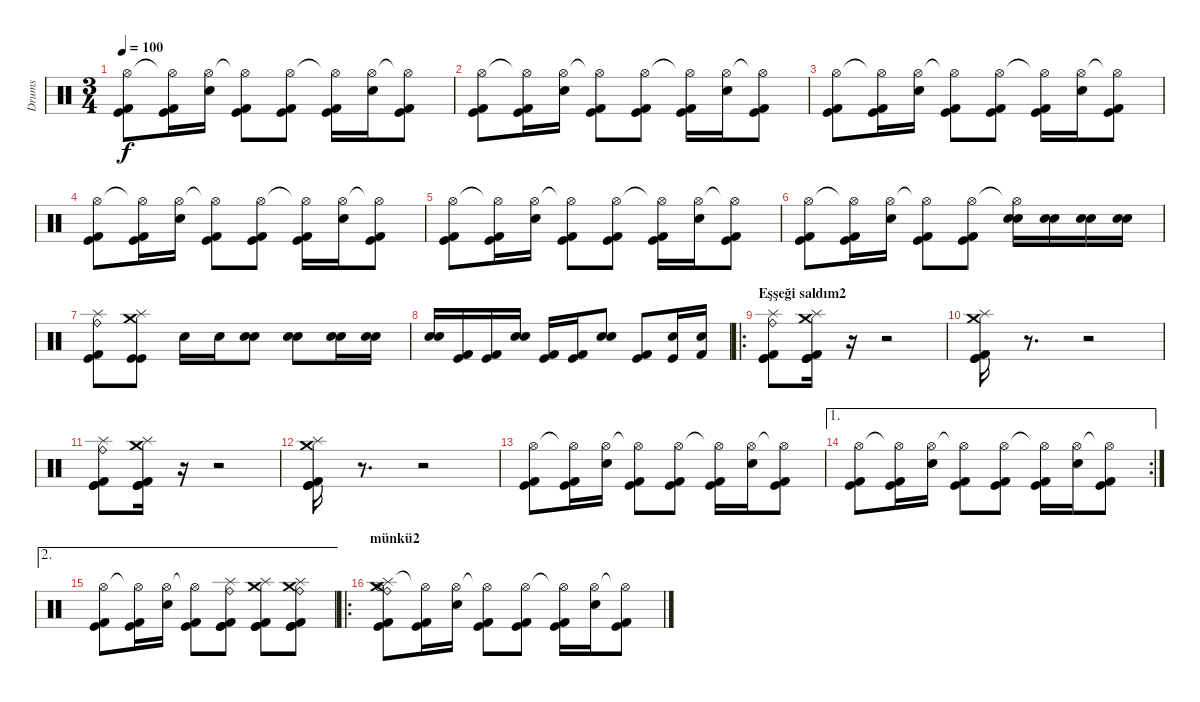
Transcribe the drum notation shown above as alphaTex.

\track ("Drums" "Drums") {instrument percussion}
\staff {score}
\articulation defaults
\ts (3 4)
\tempo 100
\clef neutral
\ks c
("Hi-Hat (open)" "Kick (hit)" "Kick (hit) 2").8{dy f} ("Hi-Hat (open)"{t} "Kick (hit)" "Kick (hit) 2").16 ("Hi-Hat (open)" "Snare (hit) 2").16 ("Hi-Hat (open)"{t} "Kick (hit)" "Kick (hit) 2").8 ("Hi-Hat (open)" "Kick (hit)" "Kick (hit) 2").8 ("Hi-Hat (open)"{t} "Kick (hit)" "Kick (hit) 2").16 ("Hi-Hat (open)" "Snare (hit) 2").16 ("Hi-Hat (open)"{t} "Kick (hit)" "Kick (hit) 2").8 |
("Hi-Hat (open)" "Kick (hit)" "Kick (hit) 2").8 ("Hi-Hat (open)"{t} "Kick (hit)" "Kick (hit) 2").16 ("Hi-Hat (open)" "Snare (hit) 2").16 ("Hi-Hat (open)"{t} "Kick (hit)" "Kick (hit) 2").8 ("Hi-Hat (open)" "Kick (hit)" "Kick (hit) 2").8 ("Hi-Hat (open)"{t} "Kick (hit)" "Kick (hit) 2").16 ("Hi-Hat (open)" "Snare (hit) 2").16 ("Hi-Hat (open)"{t} "Kick (hit)" "Kick (hit) 2").8 |
("Hi-Hat (open)" "Kick (hit)" "Kick (hit) 2").8 ("Hi-Hat (open)"{t} "Kick (hit)" "Kick (hit) 2").16 ("Hi-Hat (open)" "Snare (hit) 2").16 ("Hi-Hat (open)"{t} "Kick (hit)" "Kick (hit) 2").8 ("Hi-Hat (open)" "Kick (hit)" "Kick (hit) 2").8 ("Hi-Hat (open)"{t} "Kick (hit)" "Kick (hit) 2").16 ("Hi-Hat (open)" "Snare (hit) 2").16 ("Hi-Hat (open)"{t} "Kick (hit)" "Kick (hit) 2").8 |
("Hi-Hat (open)" "Kick (hit)" "Kick (hit) 2").8 ("Hi-Hat (open)"{t} "Kick (hit)" "Kick (hit) 2").16 ("Hi-Hat (open)" "Snare (hit) 2").16 ("Hi-Hat (open)"{t} "Kick (hit)" "Kick (hit) 2").8 ("Hi-Hat (open)" "Kick (hit)" "Kick (hit) 2").8 ("Hi-Hat (open)"{t} "Kick (hit)" "Kick (hit) 2").16 ("Hi-Hat (open)" "Snare (hit) 2").16 ("Hi-Hat (open)"{t} "Kick (hit)" "Kick (hit) 2").8 |
("Hi-Hat (open)" "Kick (hit)" "Kick (hit) 2").8 ("Hi-Hat (open)"{t} "Kick (hit)" "Kick (hit) 2").16 ("Hi-Hat (open)" "Snare (hit) 2").16 ("Hi-Hat (open)"{t} "Kick (hit)" "Kick (hit) 2").8 ("Hi-Hat (open)" "Kick (hit)" "Kick (hit) 2").8 ("Hi-Hat (open)"{t} "Kick (hit)" "Kick (hit) 2").16 ("Hi-Hat (open)" "Snare (hit) 2").16 ("Hi-Hat (open)"{t} "Kick (hit)" "Kick (hit) 2").8 |
("Hi-Hat (open)" "Kick (hit)" "Kick (hit) 2").8 ("Hi-Hat (open)"{t} "Kick (hit)" "Kick (hit) 2").16 ("Hi-Hat (open)" "Snare (hit) 2").16 ("Hi-Hat (open)"{t} "Kick (hit)" "Kick (hit) 2").8 ("Hi-Hat (open)" "Kick (hit)" "Kick (hit) 2").8 ("Hi-Hat (open)"{t} "Electric Snare (hit)" "Snare (hit) 2").16 ("Electric Snare (hit)" "Snare (hit) 2").16 ("Electric Snare (hit)" "Snare (hit) 2").16 ("Electric Snare (hit)" "Snare (hit) 2").16 |
("Splash (hit)" "Ride (bell)" "Kick (hit)" "Kick (hit) 2").8 ("Crash medium (hit)" "Splash (hit)" "Kick (hit)" "Kick (hit)").8 "Electric Snare (hit)".16 "Electric Snare (hit)".16 ("Snare (hit) 2" "Electric Snare (hit)").8 ("Snare (hit) 2" "Electric Snare (hit)").8 ("Electric Snare (hit)" "Snare (hit) 2").16 ("Electric Snare (hit)" "Snare (hit) 2").16 |
("Snare (hit) 2" "Electric Snare (hit)").16 ("Kick (hit)" "Kick (hit) 2").16 ("Kick (hit)" "Kick (hit) 2").16 ("Snare (hit) 2" "Electric Snare (hit)").16 ("Kick (hit) 2" "Kick (hit)").16 ("Kick (hit) 2" "Kick (hit)").16 ("Snare (hit) 2" "Electric Snare (hit)").8 ("Kick (hit) 2" "Kick (hit)").8 ("Snare (hit) 2" "Kick (hit)").16 ("Electric Snare (hit)" "Kick (hit) 2").16 |
\ro
\section ("" "Eşşeği saldım2")
("Splash (hit)" "Ride (bell)" "Kick (hit) 2" "Kick (hit)" "Kick (hit)").8 ("Crash medium (hit)" "Splash (hit)" "Kick (hit) 2" "Kick (hit)" "Kick (hit)" "Kick (hit)").16 r.16 r.2 |
("Splash (hit)" "Crash medium (hit)" "Kick (hit) 2" "Kick (hit)" "Kick (hit)").16 r.8{d} r.2 |
("Splash (hit)" "Ride (bell)" "Kick (hit) 2" "Kick (hit)" "Kick (hit)").8 ("Crash medium (hit)" "Splash (hit)" "Kick (hit) 2" "Kick (hit)" "Kick (hit)" "Kick (hit)").16 r.16 r.2 |
("Splash (hit)" "Crash medium (hit)" "Kick (hit) 2" "Kick (hit)" "Kick (hit)").16 r.8{d} r.2 |
("Hi-Hat (open)" "Kick (hit)" "Kick (hit) 2").8 ("Hi-Hat (open)"{t} "Kick (hit)" "Kick (hit) 2").16 ("Hi-Hat (open)" "Snare (hit) 2").16 ("Hi-Hat (open)"{t} "Kick (hit)" "Kick (hit) 2").8 ("Hi-Hat (open)" "Kick (hit)" "Kick (hit) 2").8 ("Hi-Hat (open)"{t} "Kick (hit)" "Kick (hit) 2").16 ("Hi-Hat (open)" "Snare (hit) 2").16 ("Hi-Hat (open)"{t} "Kick (hit)" "Kick (hit) 2").8 |
\ae 1
\rc 2
("Hi-Hat (open)" "Kick (hit)" "Kick (hit) 2").8 ("Hi-Hat (open)"{t} "Kick (hit)" "Kick (hit) 2").16 ("Hi-Hat (open)" "Snare (hit) 2").16 ("Hi-Hat (open)"{t} "Kick (hit)" "Kick (hit) 2").8 ("Hi-Hat (open)" "Kick (hit)" "Kick (hit) 2").8 ("Hi-Hat (open)"{t} "Kick (hit)" "Kick (hit) 2").16 ("Hi-Hat (open)" "Snare (hit) 2").16 ("Hi-Hat (open)"{t} "Kick (hit)" "Kick (hit) 2").8 |
\ae 2
("Hi-Hat (open)" "Kick (hit)" "Kick (hit) 2").8 ("Hi-Hat (open)"{t} "Kick (hit)" "Kick (hit) 2").16 ("Hi-Hat (open)" "Snare (hit) 2").16 ("Hi-Hat (open)"{t} "Kick (hit)" "Kick (hit) 2").8 ("Splash (hit)" "Ride (bell)" "Kick (hit)" "Kick (hit)" "Kick (hit) 2").8 ("Crash medium (hit)" "Splash (hit)" "Kick (hit)" "Kick (hit)" "Kick (hit) 2").8 ("Crash medium (hit)" "Ride (bell)" "Splash (hit)" "Kick (hit)" "Kick (hit)" "Kick (hit) 2").8 |
\ro
\section ("" "münkü2")
("Splash (hit)" "Crash medium (hit)" "Hi-Hat (open)" "Kick (hit)" "Kick (hit) 2" "Ride (bell)").8 ("Hi-Hat (open)"{t} "Kick (hit)" "Kick (hit) 2").16 ("Hi-Hat (open)" "Snare (hit) 2").16 ("Hi-Hat (open)"{t} "Kick (hit)" "Kick (hit) 2").8 ("Hi-Hat (open)" "Kick (hit)" "Kick (hit) 2").8 ("Hi-Hat (open)"{t} "Kick (hit)" "Kick (hit) 2").16 ("Hi-Hat (open)" "Snare (hit) 2").16 ("Hi-Hat (open)"{t} "Kick (hit)" "Kick (hit) 2").8
